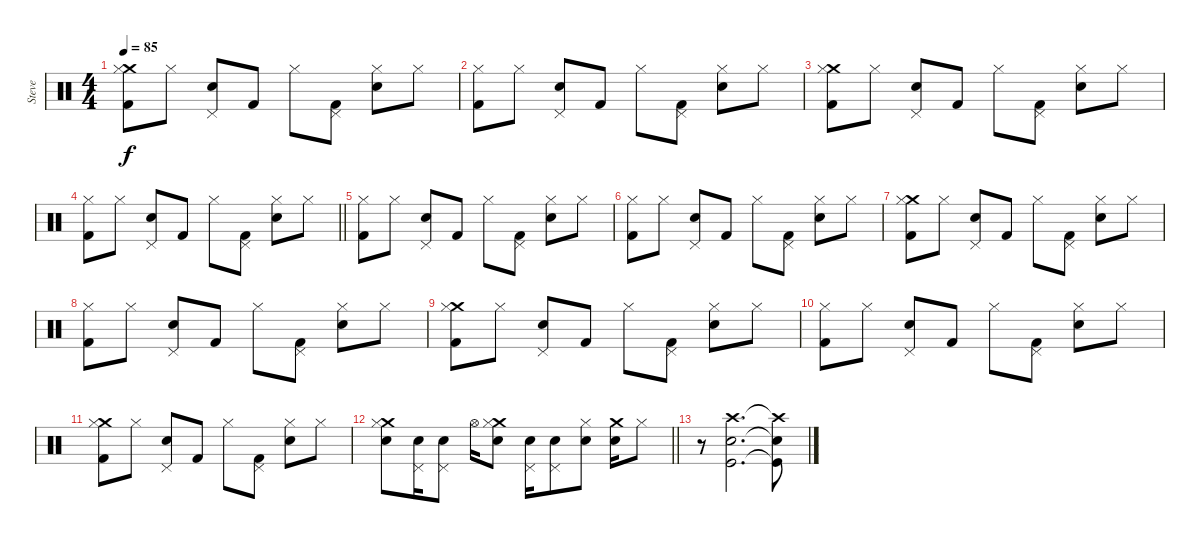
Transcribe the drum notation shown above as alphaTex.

\track ("Steve" "Steve") {instrument percussion}
\staff {score}
\articulation defaults
\ts (4 4)
\tempo 85
\clef neutral
\ks c
("Kick (hit) 2" "Crash medium (hit)" "Hi-Hat (closed)").8{dy f} "Hi-Hat (closed)".8 ("Electric Snare (hit)" "Pedal Hi-Hat (hit)").8 "Kick (hit) 2".8 "Hi-Hat (closed)".8 ("Kick (hit) 2" "Pedal Hi-Hat (hit)").8 ("Electric Snare (hit)" "Hi-Hat (closed)").8 "Hi-Hat (closed)".8 |
("Kick (hit) 2" "Hi-Hat (closed)").8 "Hi-Hat (closed)".8 ("Electric Snare (hit)" "Pedal Hi-Hat (hit)").8 "Kick (hit) 2".8 "Hi-Hat (closed)".8 ("Kick (hit) 2" "Pedal Hi-Hat (hit)").8 ("Electric Snare (hit)" "Hi-Hat (closed)").8 "Hi-Hat (closed)".8 |
("Kick (hit) 2" "Crash medium (hit)" "Hi-Hat (closed)").8 "Hi-Hat (closed)".8 ("Electric Snare (hit)" "Pedal Hi-Hat (hit)").8 "Kick (hit) 2".8 "Hi-Hat (closed)".8 ("Kick (hit) 2" "Pedal Hi-Hat (hit)").8 ("Electric Snare (hit)" "Hi-Hat (closed)").8 "Hi-Hat (closed)".8 |
\barLineRight lightlight
("Kick (hit) 2" "Hi-Hat (closed)").8 "Hi-Hat (closed)".8 ("Electric Snare (hit)" "Pedal Hi-Hat (hit)").8 "Kick (hit) 2".8 "Hi-Hat (closed)".8 ("Kick (hit) 2" "Pedal Hi-Hat (hit)").8 ("Electric Snare (hit)" "Hi-Hat (closed)").8 "Hi-Hat (closed)".8 |
("Kick (hit) 2" "Hi-Hat (closed)").8 "Hi-Hat (closed)".8 ("Electric Snare (hit)" "Pedal Hi-Hat (hit)").8 "Kick (hit) 2".8 "Hi-Hat (closed)".8 ("Kick (hit) 2" "Pedal Hi-Hat (hit)").8 ("Electric Snare (hit)" "Hi-Hat (closed)").8 "Hi-Hat (closed)".8 |
("Kick (hit) 2" "Hi-Hat (closed)").8 "Hi-Hat (closed)".8 ("Electric Snare (hit)" "Pedal Hi-Hat (hit)").8 "Kick (hit) 2".8 "Hi-Hat (closed)".8 ("Kick (hit) 2" "Pedal Hi-Hat (hit)").8 ("Electric Snare (hit)" "Hi-Hat (closed)").8 "Hi-Hat (closed)".8 |
("Kick (hit) 2" "Crash medium (hit)" "Hi-Hat (closed)").8 "Hi-Hat (closed)".8 ("Electric Snare (hit)" "Pedal Hi-Hat (hit)").8 "Kick (hit) 2".8 "Hi-Hat (closed)".8 ("Kick (hit) 2" "Pedal Hi-Hat (hit)").8 ("Electric Snare (hit)" "Hi-Hat (closed)").8 "Hi-Hat (closed)".8 |
("Kick (hit) 2" "Hi-Hat (closed)").8 "Hi-Hat (closed)".8 ("Electric Snare (hit)" "Pedal Hi-Hat (hit)").8 "Kick (hit) 2".8 "Hi-Hat (closed)".8 ("Kick (hit) 2" "Pedal Hi-Hat (hit)").8 ("Electric Snare (hit)" "Hi-Hat (closed)").8 "Hi-Hat (closed)".8 |
("Kick (hit) 2" "Crash medium (hit)" "Hi-Hat (closed)").8 "Hi-Hat (closed)".8 ("Electric Snare (hit)" "Pedal Hi-Hat (hit)").8 "Kick (hit) 2".8 "Hi-Hat (closed)".8 ("Kick (hit) 2" "Pedal Hi-Hat (hit)").8 ("Electric Snare (hit)" "Hi-Hat (closed)").8 "Hi-Hat (closed)".8 |
("Kick (hit) 2" "Hi-Hat (closed)").8 "Hi-Hat (closed)".8 ("Electric Snare (hit)" "Pedal Hi-Hat (hit)").8 "Kick (hit) 2".8 "Hi-Hat (closed)".8 ("Kick (hit) 2" "Pedal Hi-Hat (hit)").8 ("Electric Snare (hit)" "Hi-Hat (closed)").8 "Hi-Hat (closed)".8 |
("Kick (hit) 2" "Crash medium (hit)" "Hi-Hat (closed)").8 "Hi-Hat (closed)".8 ("Electric Snare (hit)" "Pedal Hi-Hat (hit)").8 "Kick (hit) 2".8 "Hi-Hat (closed)".8 ("Kick (hit) 2" "Pedal Hi-Hat (hit)").8 ("Electric Snare (hit)" "Hi-Hat (closed)").8 "Hi-Hat (closed)".8 |
\barLineRight lightlight
("Crash medium (hit)" "Hi-Hat (closed)" "Electric Snare (hit)").8 ("Pedal Hi-Hat (hit)" "Electric Snare (hit)").16 ("Pedal Hi-Hat (hit)" "Electric Snare (hit)").8 "Hi-Hat (open)".16 ("Crash medium (hit)" "Hi-Hat (closed)" "Electric Snare (hit)").8 ("Pedal Hi-Hat (hit)" "Electric Snare (hit)").16 ("Pedal Hi-Hat (hit)" "Electric Snare (hit)").8 ("Hi-Hat (closed)" "Electric Snare (hit)").8 ("Crash medium (hit)" "Electric Snare (hit)").16 "Hi-Hat (closed)".8 |
r.8 ("Crash high (hit)" "Kick (hit)" "Snare (hit) 2").2{d} ("Crash high (hit)"{t} "Kick (hit)"{t} "Snare (hit) 2"{t}).8
